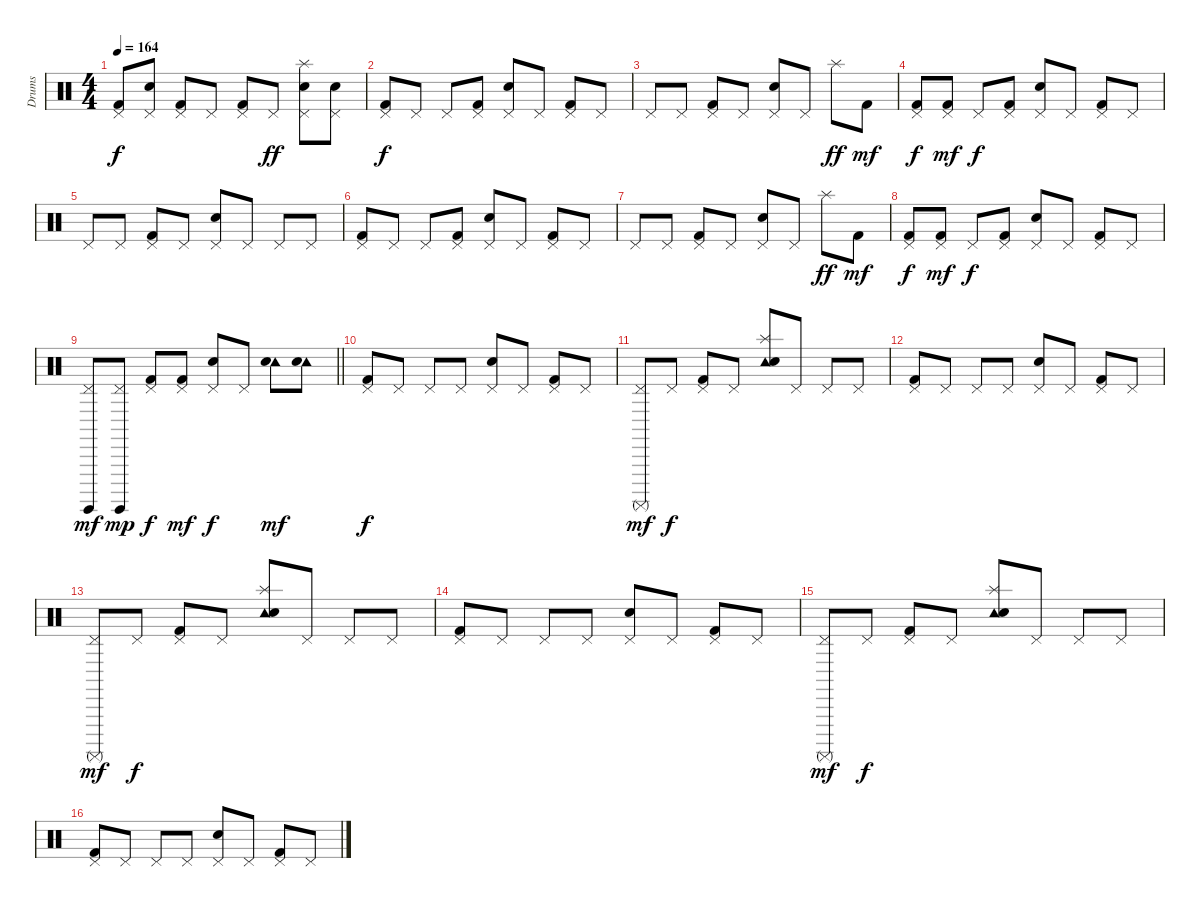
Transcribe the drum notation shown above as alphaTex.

\track ("Drums" "Drums") {instrument percussion}
\staff {score}
\articulation defaults
\ts (4 4)
\tempo 164
\clef neutral
\ks c
("Pedal Hi-Hat (hit)" "Kick (hit) 2").8{dy f} ("Pedal Hi-Hat (hit)" "Snare (hit) 2").8 ("Pedal Hi-Hat (hit)" "Kick (hit) 2").8 "Pedal Hi-Hat (hit)".8 ("Pedal Hi-Hat (hit)" "Kick (hit) 2").8 "Pedal Hi-Hat (hit)".8{dy ff} ("Splash (hit)" "Pedal Hi-Hat (hit)" "Snare (hit) 2").8 ("Pedal Hi-Hat (hit)" "Snare (hit) 2").8 |
("Pedal Hi-Hat (hit)" "Kick (hit) 2").8{dy f} "Pedal Hi-Hat (hit)".8 "Pedal Hi-Hat (hit)".8 ("Pedal Hi-Hat (hit)" "Kick (hit) 2").8 ("Pedal Hi-Hat (hit)" "Snare (hit) 2").8 "Pedal Hi-Hat (hit)".8 ("Pedal Hi-Hat (hit)" "Kick (hit) 2").8 "Pedal Hi-Hat (hit)".8 |
"Pedal Hi-Hat (hit)".8 "Pedal Hi-Hat (hit)".8 ("Pedal Hi-Hat (hit)" "Kick (hit) 2").8 "Pedal Hi-Hat (hit)".8 ("Pedal Hi-Hat (hit)" "Snare (hit) 2").8 "Pedal Hi-Hat (hit)".8 "Splash (hit)".8{dy ff} "Kick (hit) 2".8{dy mf} |
("Pedal Hi-Hat (hit)" "Kick (hit) 2").8{dy f} ("Pedal Hi-Hat (hit)" "Kick (hit) 2").8{dy mf} "Pedal Hi-Hat (hit)".8{dy f} ("Pedal Hi-Hat (hit)" "Kick (hit) 2").8 ("Pedal Hi-Hat (hit)" "Snare (hit) 2").8 "Pedal Hi-Hat (hit)".8 ("Pedal Hi-Hat (hit)" "Kick (hit) 2").8 "Pedal Hi-Hat (hit)".8 |
"Pedal Hi-Hat (hit)".8 "Pedal Hi-Hat (hit)".8 ("Pedal Hi-Hat (hit)" "Kick (hit) 2").8 "Pedal Hi-Hat (hit)".8 ("Pedal Hi-Hat (hit)" "Snare (hit) 2").8 "Pedal Hi-Hat (hit)".8 "Pedal Hi-Hat (hit)".8 "Pedal Hi-Hat (hit)".8 |
("Pedal Hi-Hat (hit)" "Kick (hit) 2").8 "Pedal Hi-Hat (hit)".8 "Pedal Hi-Hat (hit)".8 ("Pedal Hi-Hat (hit)" "Kick (hit) 2").8 ("Pedal Hi-Hat (hit)" "Snare (hit) 2").8 "Pedal Hi-Hat (hit)".8 ("Pedal Hi-Hat (hit)" "Kick (hit) 2").8 "Pedal Hi-Hat (hit)".8 |
"Pedal Hi-Hat (hit)".8 "Pedal Hi-Hat (hit)".8 ("Pedal Hi-Hat (hit)" "Kick (hit) 2").8 "Pedal Hi-Hat (hit)".8 ("Pedal Hi-Hat (hit)" "Snare (hit) 2").8 "Pedal Hi-Hat (hit)".8 "Splash (hit)".8{dy ff} "Kick (hit) 2".8{dy mf} |
("Pedal Hi-Hat (hit)" "Kick (hit) 2").8{dy f} ("Pedal Hi-Hat (hit)" "Kick (hit) 2").8{dy mf} "Pedal Hi-Hat (hit)".8{dy f} ("Pedal Hi-Hat (hit)" "Kick (hit) 2").8 ("Pedal Hi-Hat (hit)" "Snare (hit) 2").8 "Pedal Hi-Hat (hit)".8 ("Pedal Hi-Hat (hit)" "Kick (hit) 2").8 "Pedal Hi-Hat (hit)".8 |
\barLineRight lightlight
("Pedal Hi-Hat (hit)" "Surdo (hit)").8{dy mf} ("Pedal Hi-Hat (hit)" "Surdo (hit)").8{dy mp} ("Pedal Hi-Hat (hit)" "Kick (hit) 2").8{dy f} ("Pedal Hi-Hat (hit)" "Kick (hit) 2").8{dy mf} ("Pedal Hi-Hat (hit)" "Snare (hit) 2").8{dy f} "Pedal Hi-Hat (hit)".8 ("Tambourine (hit)" "Snare (hit) 2").8{dy mf} ("Tambourine (hit)" "Snare (hit) 2").8 |
("Pedal Hi-Hat (hit)" "Kick (hit) 2").8{dy f} "Pedal Hi-Hat (hit)".8 "Pedal Hi-Hat (hit)".8 "Pedal Hi-Hat (hit)".8 ("Pedal Hi-Hat (hit)" "Snare (hit) 2").8 "Pedal Hi-Hat (hit)".8 ("Pedal Hi-Hat (hit)" "Kick (hit) 2").8 "Pedal Hi-Hat (hit)".8 |
("Pedal Hi-Hat (hit)" "Surdo (mute)").8{dy mf} "Pedal Hi-Hat (hit)".8{dy f} ("Pedal Hi-Hat (hit)" "Kick (hit) 2").8 "Pedal Hi-Hat (hit)".8 ("Tambourine (hit)" "Splash (hit)" "Snare (hit) 2").8 "Pedal Hi-Hat (hit)".8 "Pedal Hi-Hat (hit)".8 "Pedal Hi-Hat (hit)".8 |
("Pedal Hi-Hat (hit)" "Kick (hit) 2").8 "Pedal Hi-Hat (hit)".8 "Pedal Hi-Hat (hit)".8 "Pedal Hi-Hat (hit)".8 ("Pedal Hi-Hat (hit)" "Snare (hit) 2").8 "Pedal Hi-Hat (hit)".8 ("Pedal Hi-Hat (hit)" "Kick (hit) 2").8 "Pedal Hi-Hat (hit)".8 |
("Pedal Hi-Hat (hit)" "Surdo (mute)").8{dy mf} "Pedal Hi-Hat (hit)".8{dy f} ("Pedal Hi-Hat (hit)" "Kick (hit) 2").8 "Pedal Hi-Hat (hit)".8 ("Tambourine (hit)" "Splash (hit)" "Snare (hit) 2").8 "Pedal Hi-Hat (hit)".8 "Pedal Hi-Hat (hit)".8 "Pedal Hi-Hat (hit)".8 |
("Pedal Hi-Hat (hit)" "Kick (hit) 2").8 "Pedal Hi-Hat (hit)".8 "Pedal Hi-Hat (hit)".8 "Pedal Hi-Hat (hit)".8 ("Pedal Hi-Hat (hit)" "Snare (hit) 2").8 "Pedal Hi-Hat (hit)".8 ("Pedal Hi-Hat (hit)" "Kick (hit) 2").8 "Pedal Hi-Hat (hit)".8 |
("Pedal Hi-Hat (hit)" "Surdo (mute)").8{dy mf} "Pedal Hi-Hat (hit)".8{dy f} ("Pedal Hi-Hat (hit)" "Kick (hit) 2").8 "Pedal Hi-Hat (hit)".8 ("Tambourine (hit)" "Splash (hit)" "Snare (hit) 2").8 "Pedal Hi-Hat (hit)".8 "Pedal Hi-Hat (hit)".8 "Pedal Hi-Hat (hit)".8 |
("Pedal Hi-Hat (hit)" "Kick (hit) 2").8 "Pedal Hi-Hat (hit)".8 "Pedal Hi-Hat (hit)".8 "Pedal Hi-Hat (hit)".8 ("Pedal Hi-Hat (hit)" "Snare (hit) 2").8 "Pedal Hi-Hat (hit)".8 ("Pedal Hi-Hat (hit)" "Kick (hit) 2").8 "Pedal Hi-Hat (hit)".8
